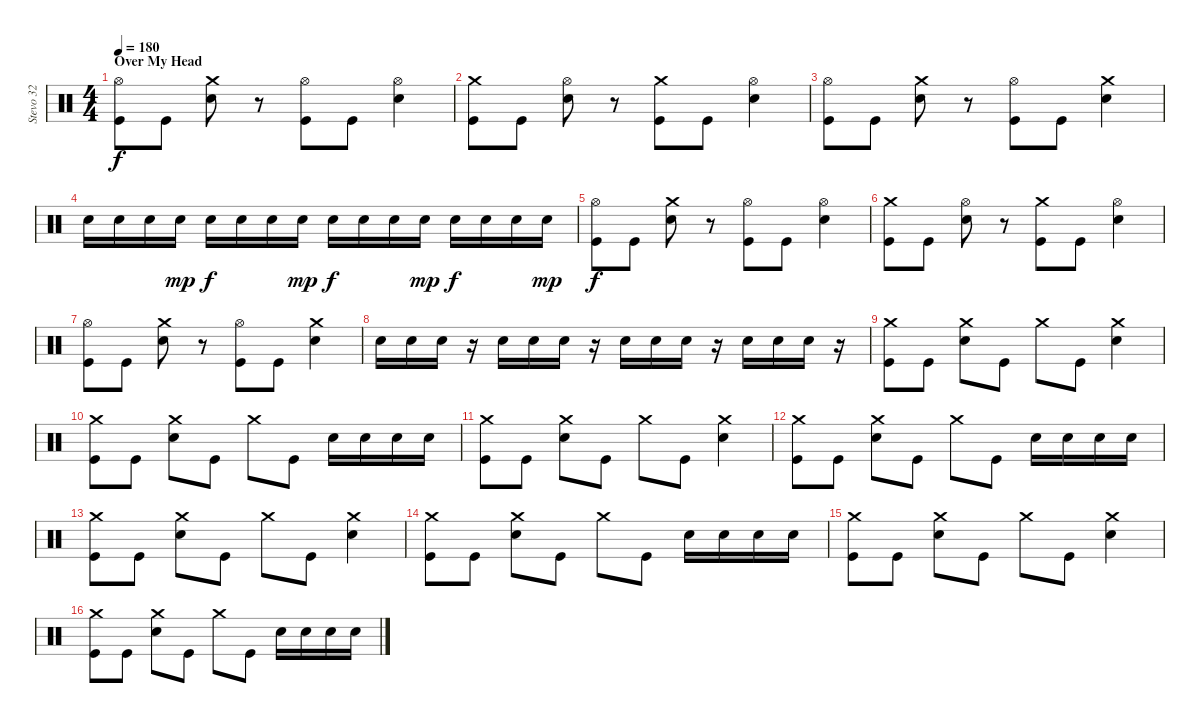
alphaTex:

\track ("Stevo 32" "Stevo 32") {instrument percussion}
\staff {score}
\articulation defaults
\ts (4 4)
\section ("" "Over My Head")
\tempo 180
\clef neutral
\ks c
("Hi-Hat (open)" "Kick (hit)").8{dy f} "Kick (hit)".8 ("Crash medium (hit)" "Electric Snare (hit)").8 r.8 ("Hi-Hat (open)" "Kick (hit)").8 "Kick (hit)".8 ("Hi-Hat (open)" "Electric Snare (hit)").4 |
("Crash medium (hit)" "Kick (hit)").8 "Kick (hit)".8 ("Hi-Hat (open)" "Electric Snare (hit)").8 r.8 ("Crash medium (hit)" "Kick (hit)").8 "Kick (hit)".8 ("Hi-Hat (open)" "Electric Snare (hit)").4 |
("Hi-Hat (open)" "Kick (hit)").8 "Kick (hit)".8 ("Crash medium (hit)" "Electric Snare (hit)").8 r.8 ("Hi-Hat (open)" "Kick (hit)").8 "Kick (hit)".8 ("Crash medium (hit)" "Electric Snare (hit)").4 |
"Electric Snare (hit)".16 "Electric Snare (hit)".16 "Electric Snare (hit)".16 "Electric Snare (hit)".16{dy mp} "Electric Snare (hit)".16{dy f} "Electric Snare (hit)".16 "Electric Snare (hit)".16 "Electric Snare (hit)".16{dy mp} "Electric Snare (hit)".16{dy f} "Electric Snare (hit)".16 "Electric Snare (hit)".16 "Electric Snare (hit)".16{dy mp} "Electric Snare (hit)".16{dy f} "Electric Snare (hit)".16 "Electric Snare (hit)".16 "Electric Snare (hit)".16{dy mp} |
("Hi-Hat (open)" "Kick (hit)").8{dy f} "Kick (hit)".8 ("Crash medium (hit)" "Electric Snare (hit)").8 r.8 ("Hi-Hat (open)" "Kick (hit)").8 "Kick (hit)".8 ("Hi-Hat (open)" "Electric Snare (hit)").4 |
("Crash medium (hit)" "Kick (hit)").8 "Kick (hit)".8 ("Hi-Hat (open)" "Electric Snare (hit)").8 r.8 ("Crash medium (hit)" "Kick (hit)").8 "Kick (hit)".8 ("Hi-Hat (open)" "Electric Snare (hit)").4 |
("Hi-Hat (open)" "Kick (hit)").8 "Kick (hit)".8 ("Crash medium (hit)" "Electric Snare (hit)").8 r.8 ("Hi-Hat (open)" "Kick (hit)").8 "Kick (hit)".8 ("Crash medium (hit)" "Electric Snare (hit)").4 |
"Electric Snare (hit)".16 "Electric Snare (hit)".16 "Electric Snare (hit)".16 r.16 "Electric Snare (hit)".16 "Electric Snare (hit)".16 "Electric Snare (hit)".16 r.16 "Electric Snare (hit)".16 "Electric Snare (hit)".16 "Electric Snare (hit)".16 r.16 "Electric Snare (hit)".16 "Electric Snare (hit)".16 "Electric Snare (hit)".16 r.16 |
("Crash medium (hit)" "Kick (hit)").8 "Kick (hit)".8 ("Crash medium (hit)" "Electric Snare (hit)").8 "Kick (hit)".8 "Crash medium (hit)".8 "Kick (hit)".8 ("Crash medium (hit)" "Electric Snare (hit)").4 |
("Crash medium (hit)" "Kick (hit)").8 "Kick (hit)".8 ("Crash medium (hit)" "Electric Snare (hit)").8 "Kick (hit)".8 "Crash medium (hit)".8 "Kick (hit)".8 "Electric Snare (hit)".16 "Electric Snare (hit)".16 "Electric Snare (hit)".16 "Electric Snare (hit)".16 |
("Crash medium (hit)" "Kick (hit)").8 "Kick (hit)".8 ("Crash medium (hit)" "Electric Snare (hit)").8 "Kick (hit)".8 "Crash medium (hit)".8 "Kick (hit)".8 ("Crash medium (hit)" "Electric Snare (hit)").4 |
("Crash medium (hit)" "Kick (hit)").8 "Kick (hit)".8 ("Crash medium (hit)" "Electric Snare (hit)").8 "Kick (hit)".8 "Crash medium (hit)".8 "Kick (hit)".8 "Electric Snare (hit)".16 "Electric Snare (hit)".16 "Electric Snare (hit)".16 "Electric Snare (hit)".16 |
("Crash medium (hit)" "Kick (hit)").8 "Kick (hit)".8 ("Crash medium (hit)" "Electric Snare (hit)").8 "Kick (hit)".8 "Crash medium (hit)".8 "Kick (hit)".8 ("Crash medium (hit)" "Electric Snare (hit)").4 |
("Crash medium (hit)" "Kick (hit)").8 "Kick (hit)".8 ("Crash medium (hit)" "Electric Snare (hit)").8 "Kick (hit)".8 "Crash medium (hit)".8 "Kick (hit)".8 "Electric Snare (hit)".16 "Electric Snare (hit)".16 "Electric Snare (hit)".16 "Electric Snare (hit)".16 |
("Crash medium (hit)" "Kick (hit)").8 "Kick (hit)".8 ("Crash medium (hit)" "Electric Snare (hit)").8 "Kick (hit)".8 "Crash medium (hit)".8 "Kick (hit)".8 ("Crash medium (hit)" "Electric Snare (hit)").4 |
("Crash medium (hit)" "Kick (hit)").8 "Kick (hit)".8 ("Crash medium (hit)" "Electric Snare (hit)").8 "Kick (hit)".8 "Crash medium (hit)".8 "Kick (hit)".8 "Electric Snare (hit)".16 "Electric Snare (hit)".16 "Electric Snare (hit)".16 "Electric Snare (hit)".16
